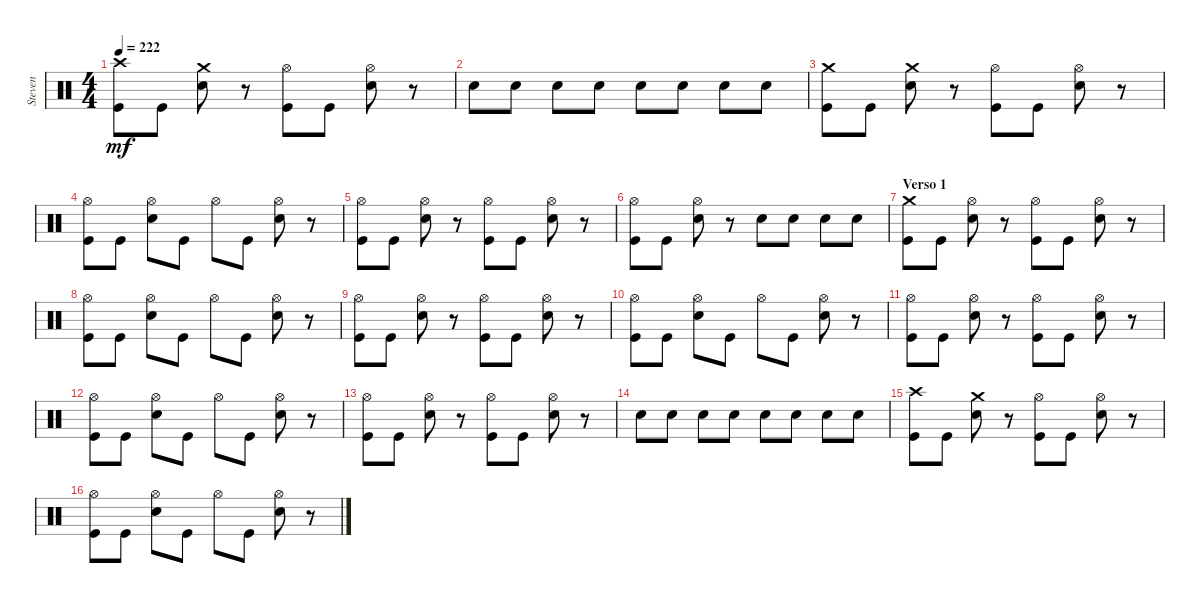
\track ("Steven" "Steven") {instrument percussion}
\staff {score}
\articulation defaults
\ts (4 4)
\tempo 222
\clef neutral
\ks c
("Kick (hit)" "Crash high (hit)").8{dy mf} "Kick (hit)".8 ("Snare (hit) 2" "Crash medium (hit)").8 r.8 ("Kick (hit)" "Hi-Hat (open)").8 "Kick (hit)".8 ("Snare (hit) 2" "Hi-Hat (open)").8 r.8 |
"Snare (hit) 2".8 "Snare (hit) 2".8 "Snare (hit) 2".8 "Snare (hit) 2".8 "Snare (hit) 2".8 "Snare (hit) 2".8 "Snare (hit) 2".8 "Snare (hit) 2".8 |
("Kick (hit)" "Crash medium (hit)").8 "Kick (hit)".8 ("Snare (hit) 2" "Crash medium (hit)").8 r.8 ("Kick (hit)" "Hi-Hat (open)").8 "Kick (hit)".8 ("Snare (hit) 2" "Hi-Hat (open)").8 r.8 |
("Kick (hit)" "Hi-Hat (open)").8 "Kick (hit)".8 ("Snare (hit) 2" "Hi-Hat (open)").8 "Kick (hit)".8 "Hi-Hat (open)".8 "Kick (hit)".8 ("Snare (hit) 2" "Hi-Hat (open)").8 r.8 |
("Kick (hit)" "Hi-Hat (open)").8 "Kick (hit)".8 ("Snare (hit) 2" "Hi-Hat (open)").8 r.8 ("Kick (hit)" "Hi-Hat (open)").8 "Kick (hit)".8 ("Snare (hit) 2" "Hi-Hat (open)").8 r.8 |
("Kick (hit)" "Hi-Hat (open)").8 "Kick (hit)".8 ("Snare (hit) 2" "Hi-Hat (open)").8 r.8 "Snare (hit) 2".8 "Snare (hit) 2".8 "Snare (hit) 2".8 "Snare (hit) 2".8 |
\section ("" "Verso 1")
("Kick (hit)" "Crash medium (hit)").8 "Kick (hit)".8 ("Snare (hit) 2" "Hi-Hat (open)").8 r.8 ("Kick (hit)" "Hi-Hat (open)").8 "Kick (hit)".8 ("Snare (hit) 2" "Hi-Hat (open)").8 r.8 |
("Kick (hit)" "Hi-Hat (open)").8 "Kick (hit)".8 ("Snare (hit) 2" "Hi-Hat (open)").8 "Kick (hit)".8 "Hi-Hat (open)".8 "Kick (hit)".8 ("Snare (hit) 2" "Hi-Hat (open)").8 r.8 |
("Kick (hit)" "Hi-Hat (open)").8 "Kick (hit)".8 ("Snare (hit) 2" "Hi-Hat (open)").8 r.8 ("Kick (hit)" "Hi-Hat (open)").8 "Kick (hit)".8 ("Snare (hit) 2" "Hi-Hat (open)").8 r.8 |
("Kick (hit)" "Hi-Hat (open)").8 "Kick (hit)".8 ("Snare (hit) 2" "Hi-Hat (open)").8 "Kick (hit)".8 "Hi-Hat (open)".8 "Kick (hit)".8 ("Snare (hit) 2" "Hi-Hat (open)").8 r.8 |
("Kick (hit)" "Hi-Hat (open)").8 "Kick (hit)".8 ("Snare (hit) 2" "Hi-Hat (open)").8 r.8 ("Kick (hit)" "Hi-Hat (open)").8 "Kick (hit)".8 ("Snare (hit) 2" "Hi-Hat (open)").8 r.8 |
("Kick (hit)" "Hi-Hat (open)").8 "Kick (hit)".8 ("Snare (hit) 2" "Hi-Hat (open)").8 "Kick (hit)".8 "Hi-Hat (open)".8 "Kick (hit)".8 ("Snare (hit) 2" "Hi-Hat (open)").8 r.8 |
("Kick (hit)" "Hi-Hat (open)").8 "Kick (hit)".8 ("Snare (hit) 2" "Hi-Hat (open)").8 r.8 ("Kick (hit)" "Hi-Hat (open)").8 "Kick (hit)".8 ("Snare (hit) 2" "Hi-Hat (open)").8 r.8 |
"Snare (hit) 2".8 "Snare (hit) 2".8 "Snare (hit) 2".8 "Snare (hit) 2".8 "Snare (hit) 2".8 "Snare (hit) 2".8 "Snare (hit) 2".8 "Snare (hit) 2".8 |
("Kick (hit)" "Crash high (hit)").8 "Kick (hit)".8 ("Snare (hit) 2" "Crash medium (hit)").8 r.8 ("Kick (hit)" "Hi-Hat (open)").8 "Kick (hit)".8 ("Snare (hit) 2" "Hi-Hat (open)").8 r.8 |
("Kick (hit)" "Hi-Hat (open)").8 "Kick (hit)".8 ("Snare (hit) 2" "Hi-Hat (open)").8 "Kick (hit)".8 "Hi-Hat (open)".8 "Kick (hit)".8 ("Snare (hit) 2" "Hi-Hat (open)").8 r.8
